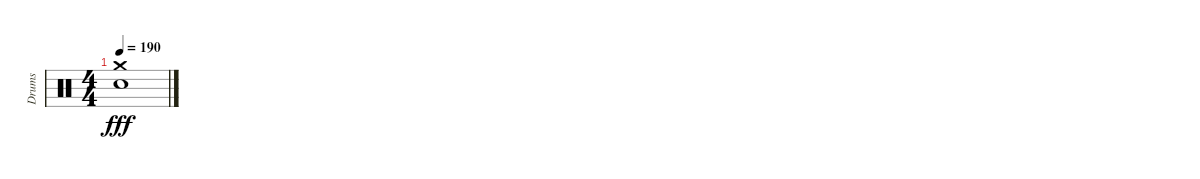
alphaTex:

\track ("Drums" "Drums") {instrument percussion}
\staff {score}
\articulation defaults
\ts (4 4)
\tempo 190
\clef neutral
\ks c
("Crash medium (hit)" "Electric Snare (hit)").1{dy fff}
